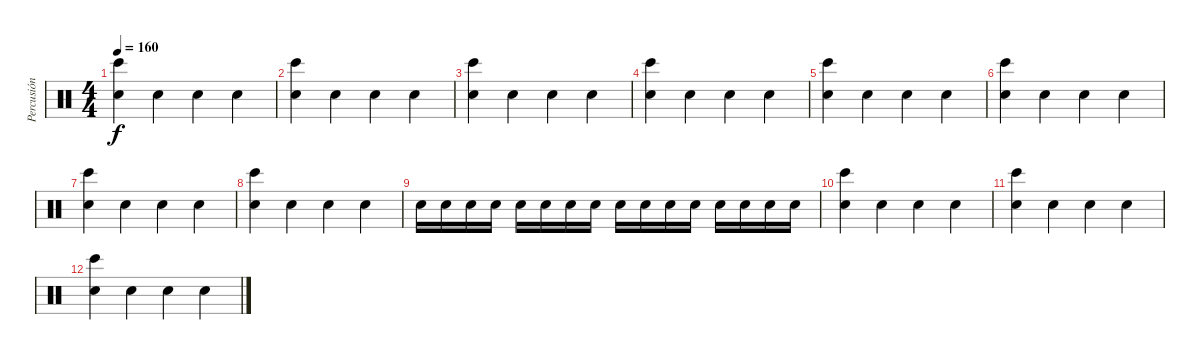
\track ("Percusión" "Percusión") {instrument percussion}
\staff {score}
\articulation defaults
\ts (4 4)
\tempo 160
\clef neutral
\ks c
("Electric Snare (hit)" "Bongo High (hit)").4{dy f} "Electric Snare (hit)".4 "Electric Snare (hit)".4 "Electric Snare (hit)".4 |
("Electric Snare (hit)" "Bongo High (hit)").4 "Electric Snare (hit)".4 "Electric Snare (hit)".4 "Electric Snare (hit)".4 |
("Electric Snare (hit)" "Bongo High (hit)").4 "Electric Snare (hit)".4 "Electric Snare (hit)".4 "Electric Snare (hit)".4 |
("Electric Snare (hit)" "Bongo High (hit)").4 "Electric Snare (hit)".4 "Electric Snare (hit)".4 "Electric Snare (hit)".4 |
("Electric Snare (hit)" "Bongo High (hit)").4 "Electric Snare (hit)".4 "Electric Snare (hit)".4 "Electric Snare (hit)".4 |
("Electric Snare (hit)" "Bongo High (hit)").4 "Electric Snare (hit)".4 "Electric Snare (hit)".4 "Electric Snare (hit)".4 |
("Electric Snare (hit)" "Bongo High (hit)").4 "Electric Snare (hit)".4 "Electric Snare (hit)".4 "Electric Snare (hit)".4 |
("Electric Snare (hit)" "Bongo High (hit)").4 "Electric Snare (hit)".4 "Electric Snare (hit)".4 "Electric Snare (hit)".4 |
"Electric Snare (hit)".16 "Electric Snare (hit)".16 "Electric Snare (hit)".16 "Electric Snare (hit)".16 "Electric Snare (hit)".16 "Electric Snare (hit)".16 "Electric Snare (hit)".16 "Electric Snare (hit)".16 "Electric Snare (hit)".16 "Electric Snare (hit)".16 "Electric Snare (hit)".16 "Electric Snare (hit)".16 "Electric Snare (hit)".16 "Electric Snare (hit)".16 "Electric Snare (hit)".16 "Electric Snare (hit)".16 |
("Electric Snare (hit)" "Bongo High (hit)").4 "Electric Snare (hit)".4 "Electric Snare (hit)".4 "Electric Snare (hit)".4 |
("Electric Snare (hit)" "Bongo High (hit)").4 "Electric Snare (hit)".4 "Electric Snare (hit)".4 "Electric Snare (hit)".4 |
("Electric Snare (hit)" "Bongo High (hit)").4 "Electric Snare (hit)".4 "Electric Snare (hit)".4 "Electric Snare (hit)".4
